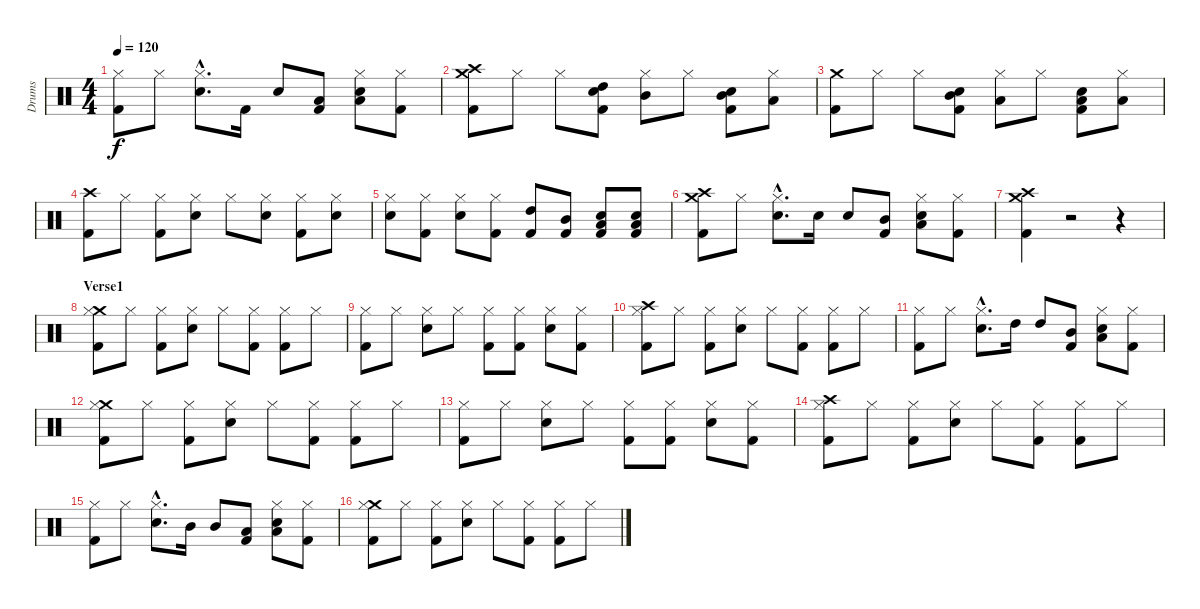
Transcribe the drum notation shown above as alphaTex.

\track ("Drums" "Drums") {instrument percussion}
\staff {score}
\articulation defaults
\ts (4 4)
\tempo 120
\clef neutral
\ks c
("Hi-Hat (closed)" "Kick (hit) 2").8{dy f} "Hi-Hat (closed)".8 ("Hi-Hat (closed)"{hac} "Snare (hit) 2"{hac}).8{d} "Kick (hit) 2".16 "Snare (hit) 2".8 ("Low Tom (hit)" "Kick (hit) 2").8 ("Hi-Hat (closed)" "Low Tom (hit)" "Snare (hit) 2").8 ("Hi-Hat (closed)" "Kick (hit) 2").8 |
("Crash medium (hit)" "Crash high (hit)" "Kick (hit) 2").8 "Hi-Hat (closed)".8 "Hi-Hat (closed)".8 ("High Tom (hit)" "Snare (hit) 2" "Kick (hit) 2").8 ("Hi-Hat (closed)" "Mid Tom (hit)").8 "Hi-Hat (closed)".8 ("Mid Tom (hit)" "Snare (hit) 2" "Kick (hit) 2").8 ("Hi-Hat (closed)" "Low Tom (hit)").8 |
("Crash medium (hit)" "Kick (hit) 2").8 "Hi-Hat (closed)".8 "Hi-Hat (closed)".8 ("Mid Tom (hit)" "Snare (hit) 2" "Kick (hit) 2").8 ("Hi-Hat (closed)" "Low Tom (hit)").8 "Hi-Hat (closed)".8 ("Low Tom (hit)" "Snare (hit) 2" "Kick (hit) 2").8 ("Hi-Hat (closed)" "Low Floor Tom (hit)").8 |
("Crash high (hit)" "Kick (hit) 2").8 "Hi-Hat (closed)".8 ("Hi-Hat (closed)" "Kick (hit) 2").8 ("Hi-Hat (closed)" "Snare (hit) 2").8 "Hi-Hat (closed)".8 ("Hi-Hat (closed)" "Snare (hit) 2").8 ("Hi-Hat (closed)" "Kick (hit) 2").8 ("Hi-Hat (closed)" "Snare (hit) 2").8 |
("Hi-Hat (closed)" "Snare (hit) 2").8 ("Hi-Hat (closed)" "Kick (hit) 2").8 ("Hi-Hat (closed)" "Snare (hit) 2").8 ("Hi-Hat (closed)" "Kick (hit) 2").8 ("High Tom (hit)" "Kick (hit) 2").8 ("Mid Tom (hit)" "Kick (hit) 2").8 ("Low Tom (hit)" "Snare (hit) 2" "Kick (hit) 2").8 ("Low Floor Tom (hit)" "Snare (hit) 2" "Kick (hit) 2").8 |
("Crash medium (hit)" "Crash high (hit)" "Kick (hit) 2").8 "Hi-Hat (closed)".8 ("Hi-Hat (closed)"{hac} "Snare (hit) 2"{hac}).8{d} "Snare (hit) 2".16 "Snare (hit) 2".8 ("Mid Tom (hit)" "Kick (hit) 2").8 ("Hi-Hat (closed)" "Low Tom (hit)" "Snare (hit) 2").8 ("Hi-Hat (closed)" "Kick (hit) 2").8 |
("Crash medium (hit)" "Crash high (hit)" "Kick (hit) 2").4 r.2 r.4 |
\section ("" "Verse1")
("Crash medium (hit)" "Hi-Hat (closed)" "Kick (hit) 2").8 "Hi-Hat (closed)".8 ("Hi-Hat (closed)" "Kick (hit) 2").8 ("Hi-Hat (closed)" "Snare (hit) 2").8 "Hi-Hat (closed)".8 ("Hi-Hat (closed)" "Kick (hit) 2").8 ("Hi-Hat (closed)" "Kick (hit) 2").8 "Hi-Hat (closed)".8 |
("Hi-Hat (closed)" "Kick (hit) 2").8 "Hi-Hat (closed)".8 ("Hi-Hat (closed)" "Snare (hit) 2").8 "Hi-Hat (closed)".8 ("Hi-Hat (closed)" "Kick (hit) 2").8 ("Hi-Hat (closed)" "Kick (hit) 2").8 ("Hi-Hat (closed)" "Snare (hit) 2").8 ("Hi-Hat (closed)" "Kick (hit) 2").8 |
("Crash high (hit)" "Hi-Hat (closed)" "Kick (hit) 2").8 "Hi-Hat (closed)".8 ("Hi-Hat (closed)" "Kick (hit) 2").8 ("Hi-Hat (closed)" "Snare (hit) 2").8 "Hi-Hat (closed)".8 ("Hi-Hat (closed)" "Kick (hit) 2").8 ("Hi-Hat (closed)" "Kick (hit) 2").8 "Hi-Hat (closed)".8 |
("Hi-Hat (closed)" "Kick (hit) 2").8 "Hi-Hat (closed)".8 ("Hi-Hat (closed)"{hac} "Snare (hit) 2"{hac}).8{d} "High Tom (hit)".16 "High Tom (hit)".8 ("Mid Tom (hit)" "Kick (hit) 2").8 ("Hi-Hat (closed)" "Low Tom (hit)" "Snare (hit) 2").8 ("Hi-Hat (closed)" "Kick (hit) 2").8 |
("Crash medium (hit)" "Hi-Hat (closed)" "Kick (hit) 2").8 "Hi-Hat (closed)".8 ("Hi-Hat (closed)" "Kick (hit) 2").8 ("Hi-Hat (closed)" "Snare (hit) 2").8 "Hi-Hat (closed)".8 ("Hi-Hat (closed)" "Kick (hit) 2").8 ("Hi-Hat (closed)" "Kick (hit) 2").8 "Hi-Hat (closed)".8 |
("Hi-Hat (closed)" "Kick (hit) 2").8 "Hi-Hat (closed)".8 ("Hi-Hat (closed)" "Snare (hit) 2").8 "Hi-Hat (closed)".8 ("Hi-Hat (closed)" "Kick (hit) 2").8 ("Hi-Hat (closed)" "Kick (hit) 2").8 ("Hi-Hat (closed)" "Snare (hit) 2").8 ("Hi-Hat (closed)" "Kick (hit) 2").8 |
("Crash high (hit)" "Hi-Hat (closed)" "Kick (hit) 2").8 "Hi-Hat (closed)".8 ("Hi-Hat (closed)" "Kick (hit) 2").8 ("Hi-Hat (closed)" "Snare (hit) 2").8 "Hi-Hat (closed)".8 ("Hi-Hat (closed)" "Kick (hit) 2").8 ("Hi-Hat (closed)" "Kick (hit) 2").8 "Hi-Hat (closed)".8 |
("Hi-Hat (closed)" "Kick (hit) 2").8 "Hi-Hat (closed)".8 ("Hi-Hat (closed)"{hac} "Snare (hit) 2"{hac}).8{d} "Mid Tom (hit)".16 "Mid Tom (hit)".8 ("Low Tom (hit)" "Kick (hit) 2").8 ("Hi-Hat (closed)" "Low Tom (hit)" "Snare (hit) 2").8 ("Hi-Hat (closed)" "Kick (hit) 2").8 |
("Crash medium (hit)" "Hi-Hat (closed)" "Kick (hit) 2").8 "Hi-Hat (closed)".8 ("Hi-Hat (closed)" "Kick (hit) 2").8 ("Hi-Hat (closed)" "Snare (hit) 2").8 "Hi-Hat (closed)".8 ("Hi-Hat (closed)" "Kick (hit) 2").8 ("Hi-Hat (closed)" "Kick (hit) 2").8 "Hi-Hat (closed)".8
